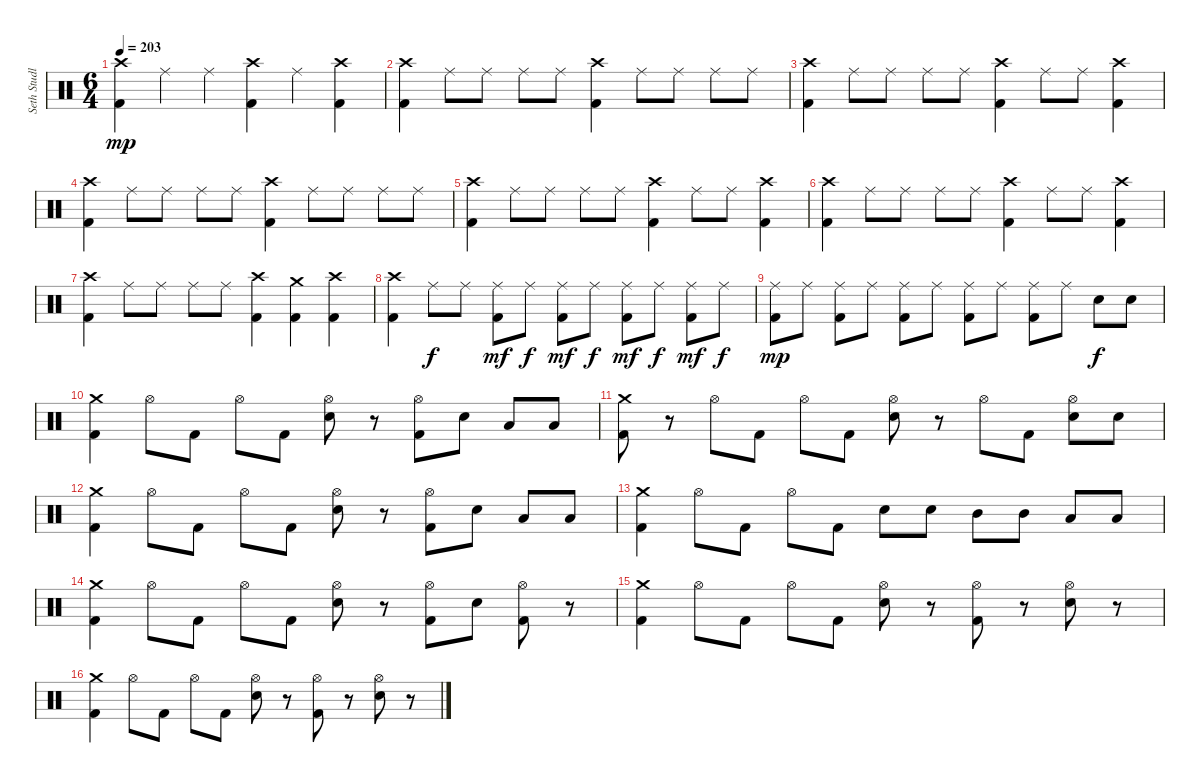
\track ("Seth Studley (Drums)" "Seth Studl") {instrument percussion}
\staff {score}
\articulation defaults
\ts (6 4)
\tempo 203
\clef neutral
\ks c
("Crash high (hit)" "Kick (hit) 2").4{dy mp} "Ride (middle)".4 "Ride (middle)".4 ("Crash high (hit)" "Kick (hit) 2").4 "Ride (middle)".4 ("Crash high (hit)" "Kick (hit) 2").4 |
("Crash high (hit)" "Kick (hit) 2").4 "Ride (middle)".8 "Ride (middle)".8 "Ride (middle)".8 "Ride (middle)".8 ("Crash high (hit)" "Kick (hit) 2").4 "Ride (middle)".8 "Ride (middle)".8 "Ride (middle)".8 "Ride (middle)".8 |
("Crash high (hit)" "Kick (hit) 2").4 "Ride (middle)".8 "Ride (middle)".8 "Ride (middle)".8 "Ride (middle)".8 ("Crash high (hit)" "Kick (hit) 2").4 "Ride (middle)".8 "Ride (middle)".8 ("Crash high (hit)" "Kick (hit) 2").4 |
("Crash high (hit)" "Kick (hit) 2").4 "Ride (middle)".8 "Ride (middle)".8 "Ride (middle)".8 "Ride (middle)".8 ("Crash high (hit)" "Kick (hit) 2").4 "Ride (middle)".8 "Ride (middle)".8 "Ride (middle)".8 "Ride (middle)".8 |
("Crash high (hit)" "Kick (hit) 2").4 "Ride (middle)".8 "Ride (middle)".8 "Ride (middle)".8 "Ride (middle)".8 ("Crash high (hit)" "Kick (hit) 2").4 "Ride (middle)".8 "Ride (middle)".8 ("Crash high (hit)" "Kick (hit) 2").4 |
("Crash high (hit)" "Kick (hit) 2").4 "Ride (middle)".8 "Ride (middle)".8 "Ride (middle)".8 "Ride (middle)".8 ("Crash high (hit)" "Kick (hit) 2").4 "Ride (middle)".8 "Ride (middle)".8 ("Crash high (hit)" "Kick (hit) 2").4 |
("Crash high (hit)" "Kick (hit) 2").4 "Ride (middle)".8 "Ride (middle)".8 "Ride (middle)".8 "Ride (middle)".8 ("Crash high (hit)" "Kick (hit) 2").4 ("Crash medium (hit)" "Kick (hit) 2").4 ("Crash high (hit)" "Kick (hit) 2").4 |
("Crash high (hit)" "Kick (hit) 2").4 "Ride (middle)".8{dy f} "Ride (middle)".8 ("Ride (middle)" "Kick (hit) 2").8{dy mf} "Ride (middle)".8{dy f} ("Ride (middle)" "Kick (hit) 2").8{dy mf} "Ride (middle)".8{dy f} ("Ride (middle)" "Kick (hit) 2").8{dy mf} "Ride (middle)".8{dy f} ("Ride (middle)" "Kick (hit) 2").8{dy mf} "Ride (middle)".8{dy f} |
("Ride (middle)" "Kick (hit) 2").8{dy mp} "Ride (middle)".8 ("Ride (middle)" "Kick (hit) 2").8 "Ride (middle)".8 ("Ride (middle)" "Kick (hit) 2").8 "Ride (middle)".8 ("Ride (middle)" "Kick (hit) 2").8 "Ride (middle)".8 ("Ride (middle)" "Kick (hit) 2").8 "Ride (middle)".8 "Electric Snare (hit)".8{dy f} "Electric Snare (hit)".8 |
("Crash medium (hit)" "Kick (hit) 2").4 "Hi-Hat (open)".8 "Kick (hit) 2".8 "Hi-Hat (open)".8 "Kick (hit) 2".8 ("Hi-Hat (open)" "Electric Snare (hit)").8 r.8 ("Hi-Hat (open)" "Kick (hit) 2").8 "Electric Snare (hit)".8 "Low Tom (hit)".8 "Low Tom (hit)".8 |
("Crash medium (hit)" "Kick (hit) 2").8 r.8 "Hi-Hat (open)".8 "Kick (hit) 2".8 "Hi-Hat (open)".8 "Kick (hit) 2".8 ("Hi-Hat (open)" "Electric Snare (hit)").8 r.8 "Hi-Hat (open)".8 "Kick (hit) 2".8 ("Hi-Hat (open)" "Electric Snare (hit)").8 "Electric Snare (hit)".8 |
("Crash medium (hit)" "Kick (hit) 2").4 "Hi-Hat (open)".8 "Kick (hit) 2".8 "Hi-Hat (open)".8 "Kick (hit) 2".8 ("Hi-Hat (open)" "Electric Snare (hit)").8 r.8 ("Hi-Hat (open)" "Kick (hit) 2").8 "Electric Snare (hit)".8 "Low Tom (hit)".8 "Low Tom (hit)".8 |
("Crash medium (hit)" "Kick (hit) 2").4 "Hi-Hat (open)".8 "Kick (hit) 2".8 "Hi-Hat (open)".8 "Kick (hit) 2".8 "Electric Snare (hit)".8 "Electric Snare (hit)".8 "Mid Tom (hit)".8 "Mid Tom (hit)".8 "Low Tom (hit)".8 "Low Tom (hit)".8 |
("Crash medium (hit)" "Kick (hit) 2").4 "Hi-Hat (open)".8 "Kick (hit) 2".8 "Hi-Hat (open)".8 "Kick (hit) 2".8 ("Hi-Hat (open)" "Electric Snare (hit)").8 r.8 ("Hi-Hat (open)" "Kick (hit) 2").8 "Electric Snare (hit)".8 ("Hi-Hat (open)" "Kick (hit) 2").8 r.8 |
("Crash medium (hit)" "Kick (hit) 2").4 "Hi-Hat (open)".8 "Kick (hit) 2".8 "Hi-Hat (open)".8 "Kick (hit) 2".8 ("Hi-Hat (open)" "Electric Snare (hit)").8 r.8 ("Hi-Hat (open)" "Kick (hit) 2").8 r.8 ("Hi-Hat (open)" "Electric Snare (hit)").8 r.8 |
("Crash medium (hit)" "Kick (hit) 2").4 "Hi-Hat (open)".8 "Kick (hit) 2".8 "Hi-Hat (open)".8 "Kick (hit) 2".8 ("Hi-Hat (open)" "Electric Snare (hit)").8 r.8 ("Hi-Hat (open)" "Kick (hit) 2").8 r.8 ("Hi-Hat (open)" "Electric Snare (hit)").8 r.8
